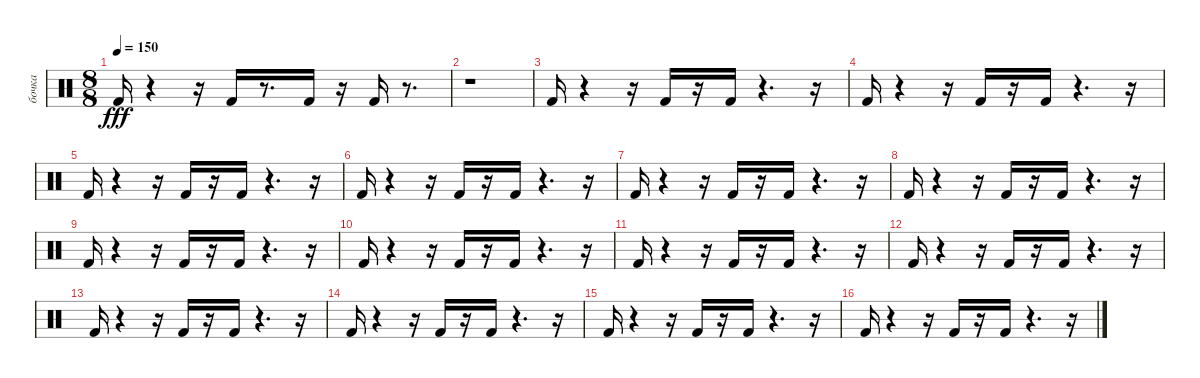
\track ("бочка" "бочка") {instrument percussion}
\staff {score}
\articulation defaults
\ts (8 8)
\tempo 150
\clef neutral
\ks c "Kick (hit) 2".16{dy fff}
r.4 r.16 "Kick (hit) 2".16 r.8{d} "Kick (hit) 2".16 r.16 "Kick (hit) 2".16 r.8{d} |
r.1 |
"Kick (hit) 2".16 r.4 r.16 "Kick (hit) 2".16 r.16 "Kick (hit) 2".16 r.4{d} r.16 |
"Kick (hit) 2".16 r.4 r.16 "Kick (hit) 2".16 r.16 "Kick (hit) 2".16 r.4{d} r.16 |
"Kick (hit) 2".16 r.4 r.16 "Kick (hit) 2".16 r.16 "Kick (hit) 2".16 r.4{d} r.16 |
"Kick (hit) 2".16 r.4 r.16 "Kick (hit) 2".16 r.16 "Kick (hit) 2".16 r.4{d} r.16 |
"Kick (hit) 2".16 r.4 r.16 "Kick (hit) 2".16 r.16 "Kick (hit) 2".16 r.4{d} r.16 |
"Kick (hit) 2".16 r.4 r.16 "Kick (hit) 2".16 r.16 "Kick (hit) 2".16 r.4{d} r.16 |
"Kick (hit) 2".16 r.4 r.16 "Kick (hit) 2".16 r.16 "Kick (hit) 2".16 r.4{d} r.16 |
"Kick (hit) 2".16 r.4 r.16 "Kick (hit) 2".16 r.16 "Kick (hit) 2".16 r.4{d} r.16 |
"Kick (hit) 2".16 r.4 r.16 "Kick (hit) 2".16 r.16 "Kick (hit) 2".16 r.4{d} r.16 |
"Kick (hit) 2".16 r.4 r.16 "Kick (hit) 2".16 r.16 "Kick (hit) 2".16 r.4{d} r.16 |
"Kick (hit) 2".16 r.4 r.16 "Kick (hit) 2".16 r.16 "Kick (hit) 2".16 r.4{d} r.16 |
"Kick (hit) 2".16 r.4 r.16 "Kick (hit) 2".16 r.16 "Kick (hit) 2".16 r.4{d} r.16 |
"Kick (hit) 2".16 r.4 r.16 "Kick (hit) 2".16 r.16 "Kick (hit) 2".16 r.4{d} r.16 |
"Kick (hit) 2".16 r.4 r.16 "Kick (hit) 2".16 r.16 "Kick (hit) 2".16 r.4{d} r.16
